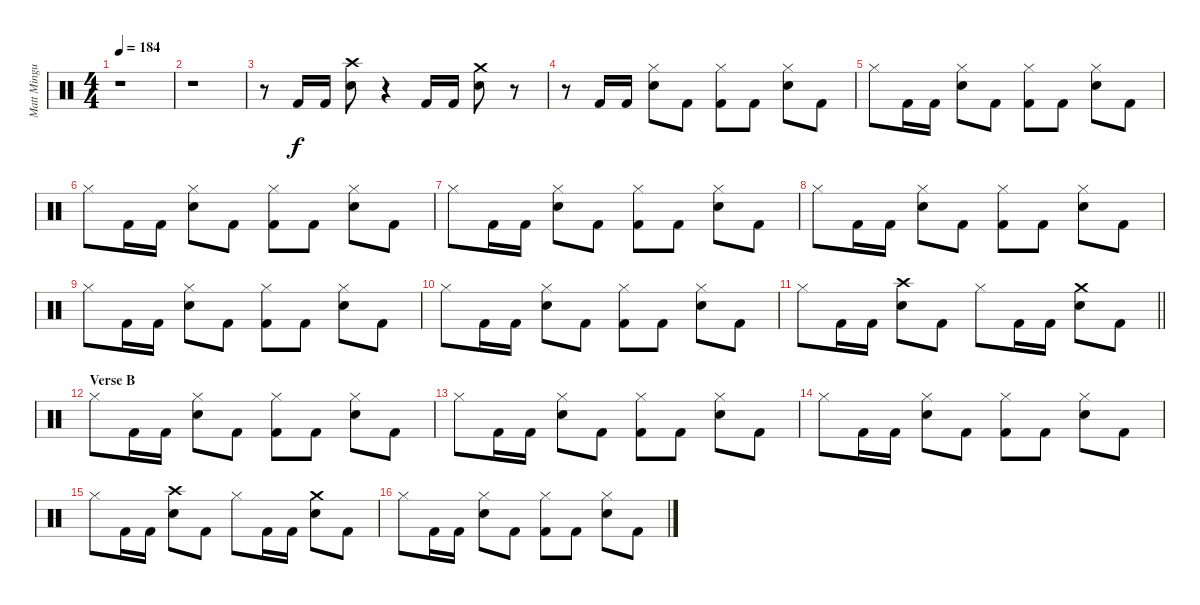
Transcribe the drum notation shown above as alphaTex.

\track ("Matt Mingus (Drums)" "Matt Mingu") {instrument percussion}
\staff {score}
\articulation defaults
\ts (4 4)
\tempo 184
\clef neutral
\ks c
r.1{dy f} |
r.1 |
r.8 "Kick (hit) 2".16 "Kick (hit) 2".16 ("Crash high (hit)" "Electric Snare (hit)").8 r.4 "Kick (hit) 2".16 "Kick (hit) 2".16 ("Crash medium (hit)" "Electric Snare (hit)").8 r.8 |
r.8 "Kick (hit) 2".16 "Kick (hit) 2".16 ("Hi-Hat (closed)" "Electric Snare (hit)").8 "Kick (hit) 2".8 ("Hi-Hat (closed)" "Kick (hit) 2").8 "Kick (hit) 2".8 ("Hi-Hat (closed)" "Electric Snare (hit)").8 "Kick (hit) 2".8 |
"Hi-Hat (closed)".8 "Kick (hit) 2".16 "Kick (hit) 2".16 ("Hi-Hat (closed)" "Electric Snare (hit)").8 "Kick (hit) 2".8 ("Hi-Hat (closed)" "Kick (hit) 2").8 "Kick (hit) 2".8 ("Hi-Hat (closed)" "Electric Snare (hit)").8 "Kick (hit) 2".8 |
"Hi-Hat (closed)".8 "Kick (hit) 2".16 "Kick (hit) 2".16 ("Hi-Hat (closed)" "Electric Snare (hit)").8 "Kick (hit) 2".8 ("Hi-Hat (closed)" "Kick (hit) 2").8 "Kick (hit) 2".8 ("Hi-Hat (closed)" "Electric Snare (hit)").8 "Kick (hit) 2".8 |
"Hi-Hat (closed)".8 "Kick (hit) 2".16 "Kick (hit) 2".16 ("Hi-Hat (closed)" "Electric Snare (hit)").8 "Kick (hit) 2".8 ("Hi-Hat (closed)" "Kick (hit) 2").8 "Kick (hit) 2".8 ("Hi-Hat (closed)" "Electric Snare (hit)").8 "Kick (hit) 2".8 |
"Hi-Hat (closed)".8 "Kick (hit) 2".16 "Kick (hit) 2".16 ("Hi-Hat (closed)" "Electric Snare (hit)").8 "Kick (hit) 2".8 ("Hi-Hat (closed)" "Kick (hit) 2").8 "Kick (hit) 2".8 ("Hi-Hat (closed)" "Electric Snare (hit)").8 "Kick (hit) 2".8 |
"Hi-Hat (closed)".8 "Kick (hit) 2".16 "Kick (hit) 2".16 ("Hi-Hat (closed)" "Electric Snare (hit)").8 "Kick (hit) 2".8 ("Hi-Hat (closed)" "Kick (hit) 2").8 "Kick (hit) 2".8 ("Hi-Hat (closed)" "Electric Snare (hit)").8 "Kick (hit) 2".8 |
"Hi-Hat (closed)".8 "Kick (hit) 2".16 "Kick (hit) 2".16 ("Hi-Hat (closed)" "Electric Snare (hit)").8 "Kick (hit) 2".8 ("Hi-Hat (closed)" "Kick (hit) 2").8 "Kick (hit) 2".8 ("Hi-Hat (closed)" "Electric Snare (hit)").8 "Kick (hit) 2".8 |
\barLineRight lightlight "Hi-Hat (closed)".8 "Kick (hit) 2".16 "Kick (hit) 2".16
("Crash high (hit)" "Electric Snare (hit)").8 "Kick (hit) 2".8 "Hi-Hat (closed)".8 "Kick (hit) 2".16 "Kick (hit) 2".16 ("Crash medium (hit)" "Electric Snare (hit)").8 "Kick (hit) 2".8 |
\section ("" "Verse B")
"Hi-Hat (closed)".8 "Kick (hit) 2".16 "Kick (hit) 2".16 ("Hi-Hat (closed)" "Electric Snare (hit)").8 "Kick (hit) 2".8 ("Hi-Hat (closed)" "Kick (hit) 2").8 "Kick (hit) 2".8 ("Hi-Hat (closed)" "Electric Snare (hit)").8 "Kick (hit) 2".8 |
"Hi-Hat (closed)".8 "Kick (hit) 2".16 "Kick (hit) 2".16 ("Hi-Hat (closed)" "Electric Snare (hit)").8 "Kick (hit) 2".8 ("Hi-Hat (closed)" "Kick (hit) 2").8 "Kick (hit) 2".8 ("Hi-Hat (closed)" "Electric Snare (hit)").8 "Kick (hit) 2".8 |
"Hi-Hat (closed)".8 "Kick (hit) 2".16 "Kick (hit) 2".16 ("Hi-Hat (closed)" "Electric Snare (hit)").8 "Kick (hit) 2".8 ("Hi-Hat (closed)" "Kick (hit) 2").8 "Kick (hit) 2".8 ("Hi-Hat (closed)" "Electric Snare (hit)").8 "Kick (hit) 2".8 |
"Hi-Hat (closed)".8 "Kick (hit) 2".16 "Kick (hit) 2".16 ("Crash high (hit)" "Electric Snare (hit)").8 "Kick (hit) 2".8 "Hi-Hat (closed)".8 "Kick (hit) 2".16 "Kick (hit) 2".16 ("Crash medium (hit)" "Electric Snare (hit)").8 "Kick (hit) 2".8 |
"Hi-Hat (closed)".8 "Kick (hit) 2".16 "Kick (hit) 2".16 ("Hi-Hat (closed)" "Electric Snare (hit)").8 "Kick (hit) 2".8 ("Hi-Hat (closed)" "Kick (hit) 2").8 "Kick (hit) 2".8 ("Hi-Hat (closed)" "Electric Snare (hit)").8 "Kick (hit) 2".8
